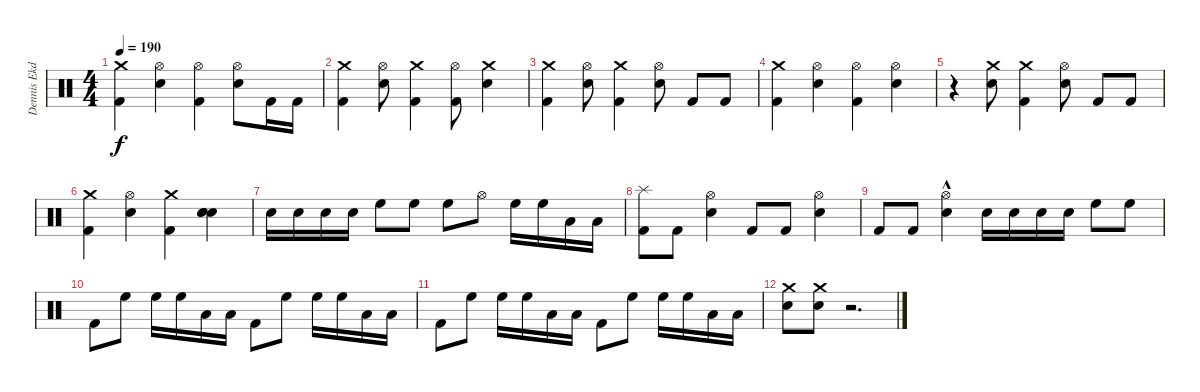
\track ("Dennis Ekdahl" "Dennis Ekd") {instrument percussion}
\staff {score}
\articulation defaults
\ts (4 4)
\tempo 190
\clef neutral
\ks c
("Crash medium (hit)" "Kick (hit) 2").4{dy f} ("Hi-Hat (open)" "Snare (hit) 2").4 ("Hi-Hat (open)" "Kick (hit) 2").4 ("Hi-Hat (open)" "Snare (hit) 2").8 "Kick (hit) 2".16 "Kick (hit) 2".16 |
("Crash medium (hit)" "Kick (hit) 2").4 ("Hi-Hat (open)" "Snare (hit) 2").8 ("Crash medium (hit)" "Kick (hit) 2").4 ("Hi-Hat (open)" "Kick (hit) 2").8 ("Crash medium (hit)" "Snare (hit) 2").4 |
("Crash medium (hit)" "Kick (hit) 2").4 ("Hi-Hat (open)" "Snare (hit) 2").8 ("Crash medium (hit)" "Kick (hit) 2").4 ("Hi-Hat (open)" "Snare (hit) 2").8 "Kick (hit) 2".8 "Kick (hit) 2".8 |
("Crash medium (hit)" "Kick (hit) 2").4 ("Hi-Hat (open)" "Snare (hit) 2").4 ("Hi-Hat (open)" "Kick (hit) 2").4 ("Hi-Hat (open)" "Snare (hit) 2").4 |
r.4 ("Crash medium (hit)" "Snare (hit) 2").8 ("Crash medium (hit)" "Kick (hit) 2").4 ("Hi-Hat (open)" "Snare (hit) 2").8 "Kick (hit) 2".8 "Kick (hit) 2".8 |
("Crash medium (hit)" "Kick (hit) 2").4 ("Hi-Hat (open)" "Snare (hit) 2").4 ("Crash medium (hit)" "Kick (hit) 2").4 ("Snare (hit) 2" "Snare (hit) 2" "Snare (hit) 2").4 |
"Snare (hit) 2".16 "Snare (hit) 2".16 "Snare (hit) 2".16 "Snare (hit) 2".16 "High Floor Tom (hit)".8 "High Floor Tom (hit)".8 "High Floor Tom (hit)".8 "Hi-Hat (open)".8 "High Floor Tom (hit)".16 "High Floor Tom (hit)".16 "Low Tom (hit)".16 "Low Tom (hit)".16 |
("Splash (hit)" "Kick (hit) 2").8 "Kick (hit) 2".8 ("Hi-Hat (open)" "Snare (hit) 2").4 "Kick (hit) 2".8 "Kick (hit) 2".8 ("Hi-Hat (open)" "Snare (hit) 2").4 |
"Kick (hit) 2".8 "Kick (hit) 2".8 ("Hi-Hat (open)"{hac} "Snare (hit) 2").4 "Snare (hit) 2".16 "Snare (hit) 2".16 "Snare (hit) 2".16 "Snare (hit) 2".16 "High Floor Tom (hit)".8 "High Floor Tom (hit)".8 |
"Kick (hit) 2".8 "High Floor Tom (hit)".8 "High Floor Tom (hit)".16 "High Floor Tom (hit)".16 "Low Tom (hit)".16 "Low Tom (hit)".16 "Kick (hit) 2".8 "High Floor Tom (hit)".8 "High Floor Tom (hit)".16 "High Floor Tom (hit)".16 "Low Tom (hit)".16 "Low Tom (hit)".16 |
"Kick (hit) 2".8 "High Floor Tom (hit)".8 "High Floor Tom (hit)".16 "High Floor Tom (hit)".16 "Low Tom (hit)".16 "Low Tom (hit)".16 "Kick (hit) 2".8 "High Floor Tom (hit)".8 "High Floor Tom (hit)".16 "High Floor Tom (hit)".16 "Low Tom (hit)".16 "Low Tom (hit)".16 |
("Crash medium (hit)" "Snare (hit) 2").8 ("Crash medium (hit)" "Snare (hit) 2").8 r.2{d}
